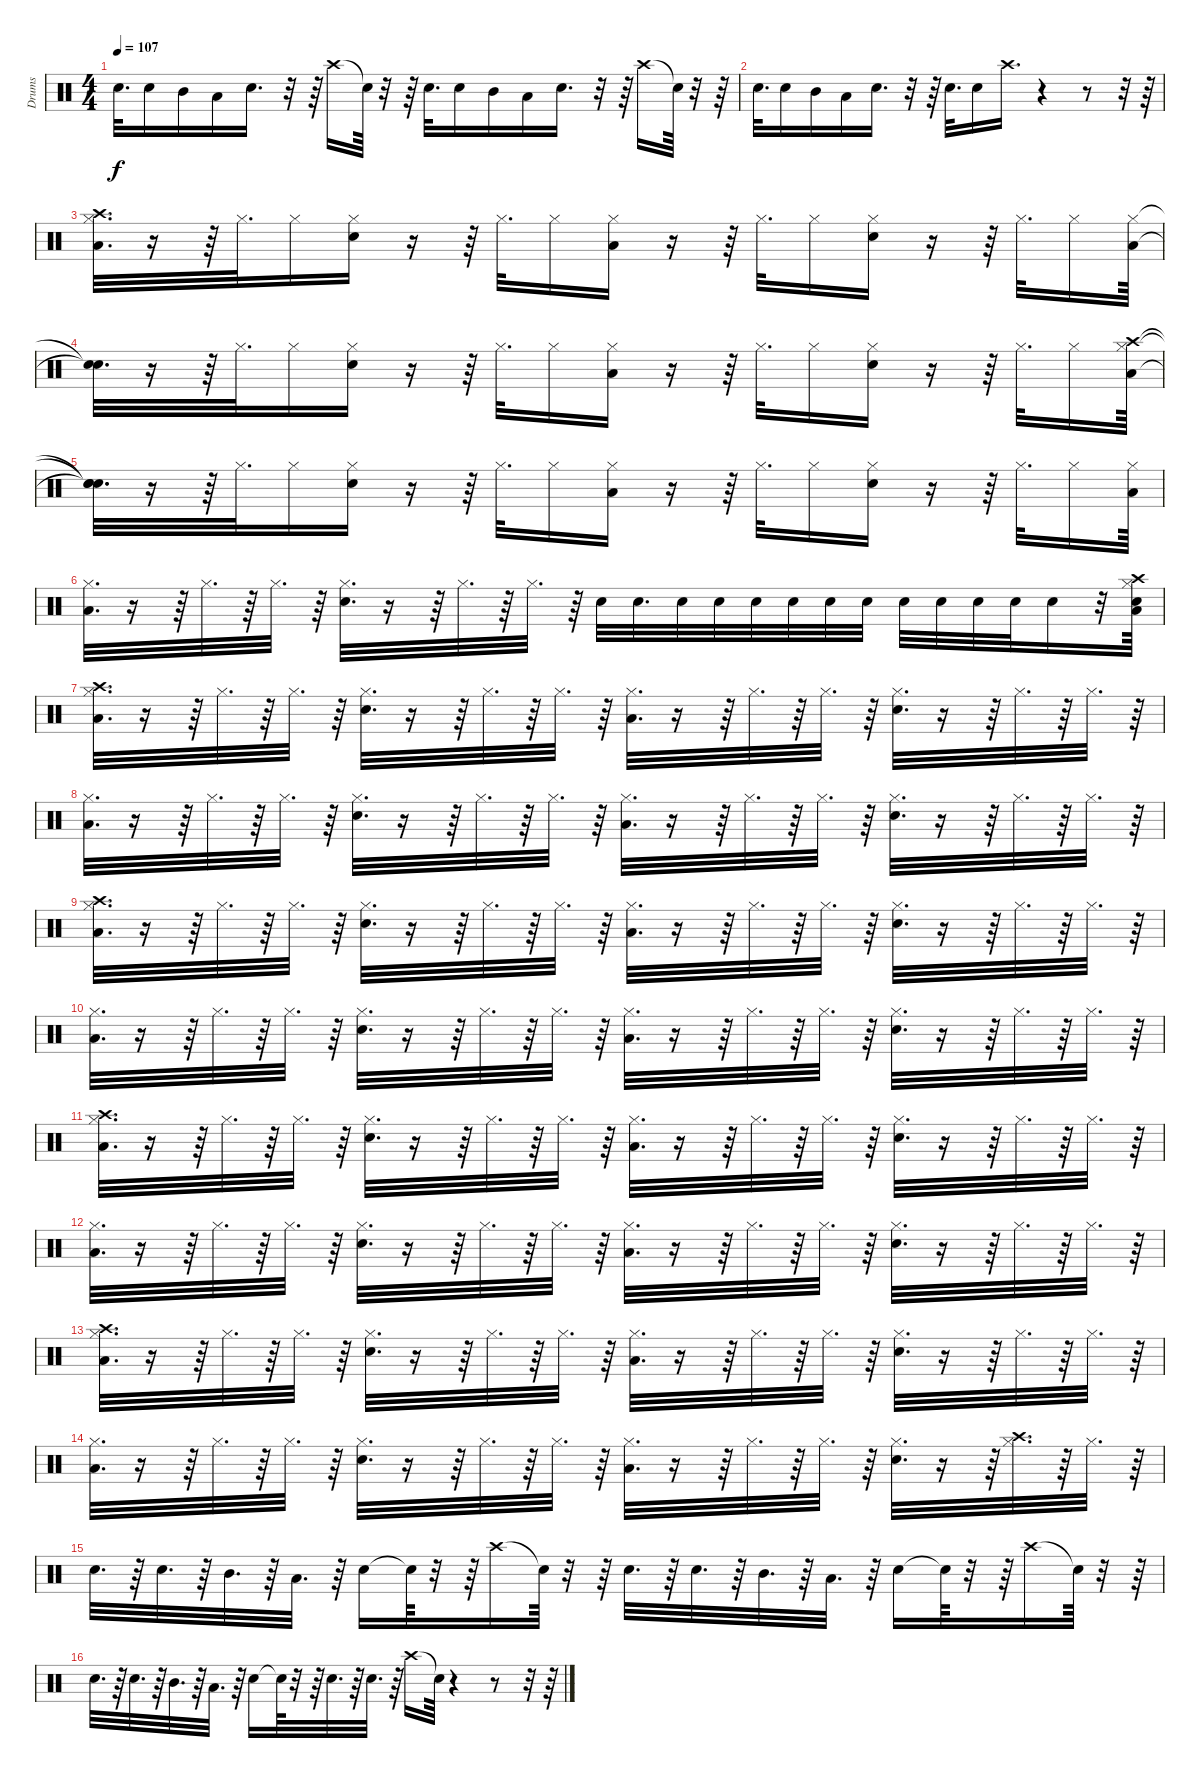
\track ("Drums" "Drums") {instrument percussion}
\staff {score}
\articulation defaults
\ts (4 4)
\tempo 107
\clef neutral
\ks c "Snare (hit) 2".32{d dy f} "Snare (hit) 2".16 "Mid Tom (hit)".16 "Low Tom (hit)".16 "Snare (hit) 2".16{d}
r.32 r.64 "Crash high (hit)".16 "Snare (hit)"{t}.64 r.32 r.64 "Snare (hit) 2".32{d} "Snare (hit) 2".16 "Mid Tom (hit)".16 "Low Tom (hit)".16 "Snare (hit) 2".16{d} r.32 r.64 "Crash high (hit)".16 "Snare (hit)"{t}.64 r.32 r.64 |
"Snare (hit) 2".32{d} "Snare (hit) 2".16 "Mid Tom (hit)".16 "Low Tom (hit)".16 "Snare (hit) 2".16{d} r.32 r.64 "Snare (hit) 2".32{d} "Snare (hit) 2".16 "Crash high (hit)".16{d} r.4 r.8 r.32 r.64 |
("Hi-Hat (closed)" "Crash high (hit)" "Low Tom (hit)").32{d} r.16 r.64 "Hi-Hat (closed)".32{d} "Hi-Hat (closed)".16 ("Hi-Hat (closed)" "Snare (hit) 2").16 r.16 r.64 "Hi-Hat (closed)".32{d} "Hi-Hat (closed)".16 ("Hi-Hat (closed)" "Low Tom (hit)").16 r.16 r.64 "Hi-Hat (closed)".32{d} "Hi-Hat (closed)".16 ("Hi-Hat (closed)" "Snare (hit) 2").16 r.16 r.64 "Hi-Hat (closed)".32{d} "Hi-Hat (closed)".16 ("Hi-Hat (closed)" "Low Tom (hit)").64 |
("Snare (hit)"{t} "Snare (hit)"{t}).32{d} r.16 r.64 "Hi-Hat (closed)".32{d} "Hi-Hat (closed)".16 ("Hi-Hat (closed)" "Snare (hit) 2").16 r.16 r.64 "Hi-Hat (closed)".32{d} "Hi-Hat (closed)".16 ("Hi-Hat (closed)" "Low Tom (hit)").16 r.16 r.64 "Hi-Hat (closed)".32{d} "Hi-Hat (closed)".16 ("Hi-Hat (closed)" "Snare (hit) 2").16 r.16 r.64 "Hi-Hat (closed)".32{d} "Hi-Hat (closed)".16 ("Hi-Hat (closed)" "Crash high (hit)" "Low Tom (hit)").64 |
("Snare (hit)"{t} "Snare (hit)"{t} "Snare (hit)"{t}).32{d} r.16 r.64 "Hi-Hat (closed)".32{d} "Hi-Hat (closed)".16 ("Hi-Hat (closed)" "Snare (hit) 2").16 r.16 r.64 "Hi-Hat (closed)".32{d} "Hi-Hat (closed)".16 ("Hi-Hat (closed)" "Low Tom (hit)").16 r.16 r.64 "Hi-Hat (closed)".32{d} "Hi-Hat (closed)".16 ("Hi-Hat (closed)" "Snare (hit) 2").16 r.16 r.64 "Hi-Hat (closed)".32{d} "Hi-Hat (closed)".16 ("Hi-Hat (closed)" "Low Tom (hit)").64 |
("Hi-Hat (closed)" "Low Tom (hit)").32{d} r.16 r.64 "Hi-Hat (closed)".32{d} r.64 "Hi-Hat (closed)".32{d} r.64 ("Hi-Hat (closed)" "Snare (hit) 2").32{d} r.16 r.64 "Hi-Hat (closed)".32{d} r.64 "Hi-Hat (closed)".32{d} r.64 "Snare (hit) 2".32 "Snare (hit) 2".32{d} "Snare (hit) 2".32 "Snare (hit) 2".32 "Snare (hit) 2".32 "Snare (hit) 2".32 "Snare (hit) 2".32 "Snare (hit) 2".32 "Snare (hit) 2".32 "Snare (hit) 2".32 "Snare (hit) 2".32 "Snare (hit) 2".32 "Snare (hit) 2".16 r.32 ("Hi-Hat (closed)" "Crash high (hit)" "Low Tom (hit)" "Snare (hit) 2").64 |
("Hi-Hat (closed)" "Crash high (hit)" "Low Tom (hit)").32{d} r.16 r.64 "Hi-Hat (closed)".32{d} r.64 "Hi-Hat (closed)".32{d} r.64 ("Hi-Hat (closed)" "Snare (hit) 2").32{d} r.16 r.64 "Hi-Hat (closed)".32{d} r.64 "Hi-Hat (closed)".32{d} r.64 ("Hi-Hat (closed)" "Low Tom (hit)").32{d} r.16 r.64 "Hi-Hat (closed)".32{d} r.64 "Hi-Hat (closed)".32{d} r.64 ("Hi-Hat (closed)" "Snare (hit) 2").32{d} r.16 r.64 "Hi-Hat (closed)".32{d} r.64 "Hi-Hat (closed)".32{d} r.64 |
("Hi-Hat (closed)" "Low Tom (hit)").32{d} r.16 r.64 "Hi-Hat (closed)".32{d} r.64 "Hi-Hat (closed)".32{d} r.64 ("Hi-Hat (closed)" "Snare (hit) 2").32{d} r.16 r.64 "Hi-Hat (closed)".32{d} r.64 "Hi-Hat (closed)".32{d} r.64 ("Hi-Hat (closed)" "Low Tom (hit)").32{d} r.16 r.64 "Hi-Hat (closed)".32{d} r.64 "Hi-Hat (closed)".32{d} r.64 ("Hi-Hat (closed)" "Snare (hit) 2").32{d} r.16 r.64 "Hi-Hat (closed)".32{d} r.64 "Hi-Hat (closed)".32{d} r.64 |
("Hi-Hat (closed)" "Crash high (hit)" "Low Tom (hit)").32{d} r.16 r.64 "Hi-Hat (closed)".32{d} r.64 "Hi-Hat (closed)".32{d} r.64 ("Hi-Hat (closed)" "Snare (hit) 2").32{d} r.16 r.64 "Hi-Hat (closed)".32{d} r.64 "Hi-Hat (closed)".32{d} r.64 ("Hi-Hat (closed)" "Low Tom (hit)").32{d} r.16 r.64 "Hi-Hat (closed)".32{d} r.64 "Hi-Hat (closed)".32{d} r.64 ("Hi-Hat (closed)" "Snare (hit) 2").32{d} r.16 r.64 "Hi-Hat (closed)".32{d} r.64 "Hi-Hat (closed)".32{d} r.64 |
("Hi-Hat (closed)" "Low Tom (hit)").32{d} r.16 r.64 "Hi-Hat (closed)".32{d} r.64 "Hi-Hat (closed)".32{d} r.64 ("Hi-Hat (closed)" "Snare (hit) 2").32{d} r.16 r.64 "Hi-Hat (closed)".32{d} r.64 "Hi-Hat (closed)".32{d} r.64 ("Hi-Hat (closed)" "Low Tom (hit)").32{d} r.16 r.64 "Hi-Hat (closed)".32{d} r.64 "Hi-Hat (closed)".32{d} r.64 ("Hi-Hat (closed)" "Snare (hit) 2").32{d} r.16 r.64 "Hi-Hat (closed)".32{d} r.64 "Hi-Hat (closed)".32{d} r.64 |
("Hi-Hat (closed)" "Crash high (hit)" "Low Tom (hit)").32{d} r.16 r.64 "Hi-Hat (closed)".32{d} r.64 "Hi-Hat (closed)".32{d} r.64 ("Hi-Hat (closed)" "Snare (hit) 2").32{d} r.16 r.64 "Hi-Hat (closed)".32{d} r.64 "Hi-Hat (closed)".32{d} r.64 ("Hi-Hat (closed)" "Low Tom (hit)").32{d} r.16 r.64 "Hi-Hat (closed)".32{d} r.64 "Hi-Hat (closed)".32{d} r.64 ("Hi-Hat (closed)" "Snare (hit) 2").32{d} r.16 r.64 "Hi-Hat (closed)".32{d} r.64 "Hi-Hat (closed)".32{d} r.64 |
("Hi-Hat (closed)" "Low Tom (hit)").32{d} r.16 r.64 "Hi-Hat (closed)".32{d} r.64 "Hi-Hat (closed)".32{d} r.64 ("Hi-Hat (closed)" "Snare (hit) 2").32{d} r.16 r.64 "Hi-Hat (closed)".32{d} r.64 "Hi-Hat (closed)".32{d} r.64 ("Hi-Hat (closed)" "Low Tom (hit)").32{d} r.16 r.64 "Hi-Hat (closed)".32{d} r.64 "Hi-Hat (closed)".32{d} r.64 ("Hi-Hat (closed)" "Snare (hit) 2").32{d} r.16 r.64 "Hi-Hat (closed)".32{d} r.64 "Hi-Hat (closed)".32{d} r.64 |
("Hi-Hat (closed)" "Crash high (hit)" "Low Tom (hit)").32{d} r.16 r.64 "Hi-Hat (closed)".32{d} r.64 "Hi-Hat (closed)".32{d} r.64 ("Hi-Hat (closed)" "Snare (hit) 2").32{d} r.16 r.64 "Hi-Hat (closed)".32{d} r.64 "Hi-Hat (closed)".32{d} r.64 ("Hi-Hat (closed)" "Low Tom (hit)").32{d} r.16 r.64 "Hi-Hat (closed)".32{d} r.64 "Hi-Hat (closed)".32{d} r.64 ("Hi-Hat (closed)" "Snare (hit) 2").32{d} r.16 r.64 "Hi-Hat (closed)".32{d} r.64 "Hi-Hat (closed)".32{d} r.64 |
("Hi-Hat (closed)" "Low Tom (hit)").32{d} r.16 r.64 "Hi-Hat (closed)".32{d} r.64 "Hi-Hat (closed)".32{d} r.64 ("Hi-Hat (closed)" "Snare (hit) 2").32{d} r.16 r.64 "Hi-Hat (closed)".32{d} r.64 "Hi-Hat (closed)".32{d} r.64 ("Hi-Hat (closed)" "Low Tom (hit)").32{d} r.16 r.64 "Hi-Hat (closed)".32{d} r.64 "Hi-Hat (closed)".32{d} r.64 ("Hi-Hat (closed)" "Snare (hit) 2").32{d} r.16 r.64 ("Crash high (hit)" "Hi-Hat (closed)").32{d} r.64 "Hi-Hat (closed)".32{d} r.64 |
"Snare (hit) 2".32{d} r.64 "Snare (hit) 2".32{d} r.64 "Mid Tom (hit)".32{d} r.64 "Low Tom (hit)".32{d} r.64 "Snare (hit) 2".16 "Snare (hit)"{t}.64 r.32 r.64 "Crash high (hit)".16 "Snare (hit)"{t}.64 r.32 r.64 "Snare (hit) 2".32{d} r.64 "Snare (hit) 2".32{d} r.64 "Mid Tom (hit)".32{d} r.64 "Low Tom (hit)".32{d} r.64 "Snare (hit) 2".16 "Snare (hit)"{t}.64 r.32 r.64 "Crash high (hit)".16 "Snare (hit)"{t}.64 r.32 r.64 |
"Snare (hit) 2".32{d} r.64 "Snare (hit) 2".32{d} r.64 "Mid Tom (hit)".32{d} r.64 "Low Tom (hit)".32{d} r.64 "Snare (hit) 2".16 "Snare (hit)"{t}.64 r.32 r.64 "Snare (hit) 2".32{d} r.64 "Snare (hit) 2".32{d} r.64 "Crash high (hit)".16 "Snare (hit)"{t}.64 r.4 r.8 r.32 r.64
